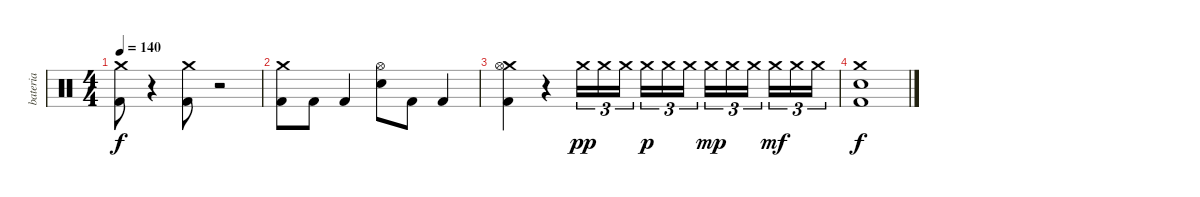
\track ("bateria" "bateria") {instrument percussion}
\staff {score}
\articulation defaults
\ts (4 4)
\tempo 140
\clef neutral
\ks c
("Crash medium (hit)" "Kick (hit) 2").8{dy f} r.4{volume 0} ("Crash medium (hit)" "Kick (hit) 2").8{volume 16} r.2{volume 0} |
("Crash medium (hit)" "Kick (hit) 2").8{volume 16} "Kick (hit) 2".8 "Kick (hit) 2".4 ("Hi-Hat (open)" "Electric Snare (hit)").8 "Kick (hit) 2".8 "Kick (hit) 2".4 |
("Crash medium (hit)" "Hi-Hat (open)" "Kick (hit) 2").4 r.4 "Crash medium (hit)".16{tu (3 2) dy pp} "Crash medium (hit)".16{tu (3 2)} "Crash medium (hit)".16{tu (3 2)} "Crash medium (hit)".16{tu (3 2) dy p} "Crash medium (hit)".16{tu (3 2)} "Crash medium (hit)".16{tu (3 2)} "Crash medium (hit)".16{tu (3 2) dy mp} "Crash medium (hit)".16{tu (3 2)} "Crash medium (hit)".16{tu (3 2)} "Crash medium (hit)".16{tu (3 2) dy mf} "Crash medium (hit)".16{tu (3 2)} "Crash medium (hit)".16{tu (3 2)} |
("Crash medium (hit)" "Electric Snare (hit)" "Kick (hit) 2").1{dy f}
